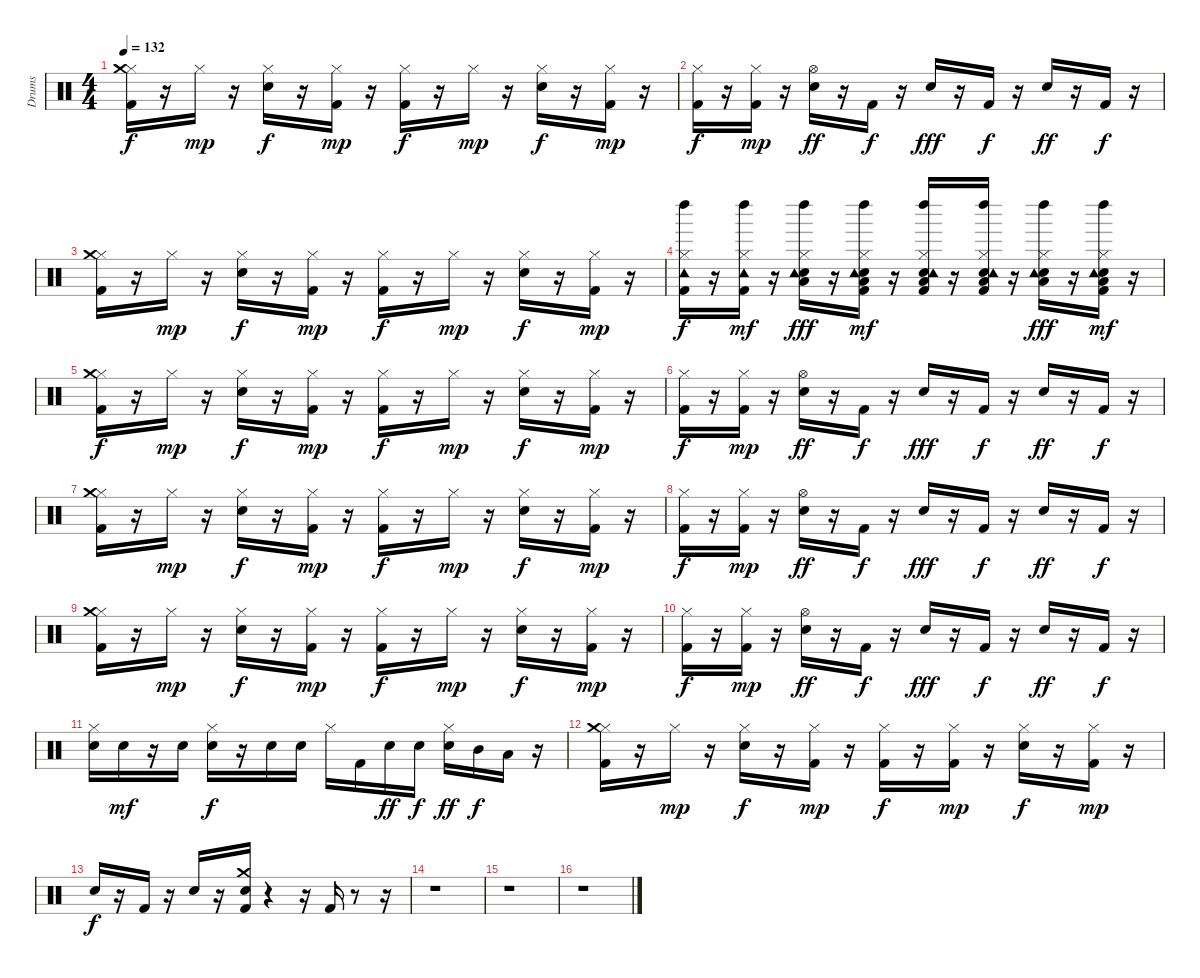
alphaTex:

\track ("Drums" "Drums") {instrument percussion}
\staff {score}
\articulation defaults
\ts (4 4)
\tempo 132
\clef neutral
\ks c
("Kick (hit) 2" "Hi-Hat (closed)" "Crash medium (hit)").16{dy f} r.16 "Hi-Hat (closed)".16{dy mp} r.16 ("Snare (hit) 2" "Hi-Hat (closed)").16{dy f} r.16 ("Kick (hit) 2" "Hi-Hat (closed)").16{dy mp} r.16 ("Kick (hit) 2" "Hi-Hat (closed)").16{dy f} r.16 "Hi-Hat (closed)".16{dy mp} r.16 ("Snare (hit) 2" "Hi-Hat (closed)").16{dy f} r.16 ("Kick (hit) 2" "Hi-Hat (closed)").16{dy mp} r.16 |
("Kick (hit) 2" "Hi-Hat (closed)").16{dy f} r.16 ("Kick (hit) 2" "Hi-Hat (closed)").16{dy mp} r.16 ("Snare (hit) 2" "Hi-Hat (open)").16{dy ff} r.16 "Kick (hit) 2".16{dy f} r.16 "Snare (hit) 2".16{dy fff} r.16 "Kick (hit) 2".16{dy f} r.16 "Snare (hit) 2".16{dy ff} r.16 "Kick (hit) 2".16{dy f} r.16 |
("Kick (hit) 2" "Hi-Hat (closed)" "Crash medium (hit)").16 r.16 "Hi-Hat (closed)".16{dy mp} r.16 ("Snare (hit) 2" "Hi-Hat (closed)").16{dy f} r.16 ("Kick (hit) 2" "Hi-Hat (closed)").16{dy mp} r.16 ("Kick (hit) 2" "Hi-Hat (closed)").16{dy f} r.16 "Hi-Hat (closed)".16{dy mp} r.16 ("Snare (hit) 2" "Hi-Hat (closed)").16{dy f} r.16 ("Kick (hit) 2" "Hi-Hat (closed)").16{dy mp} r.16 |
("Kick (hit) 2" "Hi-Hat (closed)" "Tambourine (hit)" "Left Maraca (hit)").16{dy f} r.16 ("Kick (hit) 2" "Hi-Hat (closed)" "Tambourine (hit)" "Left Maraca (hit)").16{dy mf} r.16 ("Snare (hit) 2" "Hi-Hat (closed)" "Low Floor Tom (hit)" "Tambourine (hit)" "Left Maraca (hit)").16{dy fff} r.16 ("Kick (hit) 2" "Snare (hit) 2" "Hi-Hat (closed)" "Low Floor Tom (hit)" "Tambourine (hit)" "Left Maraca (hit)").16{dy mf} r.16 ("Kick (hit) 2" "Snare (hit) 2" "Hi-Hat (closed)" "Low Floor Tom (hit)" "Tambourine (hit)" "Left Maraca (hit)").16 r.16 ("Kick (hit) 2" "Snare (hit) 2" "Hi-Hat (closed)" "Low Floor Tom (hit)" "Tambourine (hit)" "Left Maraca (hit)").16 r.16 ("Snare (hit) 2" "Hi-Hat (closed)" "Low Floor Tom (hit)" "Tambourine (hit)" "Left Maraca (hit)").16{dy fff} r.16 ("Kick (hit) 2" "Snare (hit) 2" "Hi-Hat (closed)" "Low Floor Tom (hit)" "Tambourine (hit)" "Left Maraca (hit)").16{dy mf} r.16 |
("Kick (hit) 2" "Hi-Hat (closed)" "Crash medium (hit)").16{dy f} r.16 "Hi-Hat (closed)".16{dy mp} r.16 ("Snare (hit) 2" "Hi-Hat (closed)").16{dy f} r.16 ("Kick (hit) 2" "Hi-Hat (closed)").16{dy mp} r.16 ("Kick (hit) 2" "Hi-Hat (closed)").16{dy f} r.16 "Hi-Hat (closed)".16{dy mp} r.16 ("Snare (hit) 2" "Hi-Hat (closed)").16{dy f} r.16 ("Kick (hit) 2" "Hi-Hat (closed)").16{dy mp} r.16 |
("Kick (hit) 2" "Hi-Hat (closed)").16{dy f} r.16 ("Kick (hit) 2" "Hi-Hat (closed)").16{dy mp} r.16 ("Snare (hit) 2" "Hi-Hat (open)").16{dy ff} r.16 "Kick (hit) 2".16{dy f} r.16 "Snare (hit) 2".16{dy fff} r.16 "Kick (hit) 2".16{dy f} r.16 "Snare (hit) 2".16{dy ff} r.16 "Kick (hit) 2".16{dy f} r.16 |
("Kick (hit) 2" "Hi-Hat (closed)" "Crash medium (hit)").16 r.16 "Hi-Hat (closed)".16{dy mp} r.16 ("Snare (hit) 2" "Hi-Hat (closed)").16{dy f} r.16 ("Kick (hit) 2" "Hi-Hat (closed)").16{dy mp} r.16 ("Kick (hit) 2" "Hi-Hat (closed)").16{dy f} r.16 "Hi-Hat (closed)".16{dy mp} r.16 ("Snare (hit) 2" "Hi-Hat (closed)").16{dy f} r.16 ("Kick (hit) 2" "Hi-Hat (closed)").16{dy mp} r.16 |
("Kick (hit) 2" "Hi-Hat (closed)").16{dy f} r.16 ("Kick (hit) 2" "Hi-Hat (closed)").16{dy mp} r.16 ("Snare (hit) 2" "Hi-Hat (open)").16{dy ff} r.16 "Kick (hit) 2".16{dy f} r.16 "Snare (hit) 2".16{dy fff} r.16 "Kick (hit) 2".16{dy f} r.16 "Snare (hit) 2".16{dy ff} r.16 "Kick (hit) 2".16{dy f} r.16 |
("Kick (hit) 2" "Hi-Hat (closed)" "Crash medium (hit)").16 r.16 "Hi-Hat (closed)".16{dy mp} r.16 ("Snare (hit) 2" "Hi-Hat (closed)").16{dy f} r.16 ("Kick (hit) 2" "Hi-Hat (closed)").16{dy mp} r.16 ("Kick (hit) 2" "Hi-Hat (closed)").16{dy f} r.16 "Hi-Hat (closed)".16{dy mp} r.16 ("Snare (hit) 2" "Hi-Hat (closed)").16{dy f} r.16 ("Kick (hit) 2" "Hi-Hat (closed)").16{dy mp} r.16 |
("Kick (hit) 2" "Hi-Hat (closed)").16{dy f} r.16 ("Kick (hit) 2" "Hi-Hat (closed)").16{dy mp} r.16 ("Snare (hit) 2" "Hi-Hat (open)").16{dy ff} r.16 "Kick (hit) 2".16{dy f} r.16 "Snare (hit) 2".16{dy fff} r.16 "Kick (hit) 2".16{dy f} r.16 "Snare (hit) 2".16{dy ff} r.16 "Kick (hit) 2".16{dy f} r.16 |
("Snare (hit) 2" "Hi-Hat (closed)").16 "Snare (hit) 2".16{dy mf} r.16 "Snare (hit) 2".16 ("Snare (hit) 2" "Hi-Hat (closed)").16{dy f} r.16 "Snare (hit) 2".16 "Snare (hit) 2".16 "Hi-Hat (closed)".16 "Kick (hit) 2".16 "Snare (hit) 2".16{dy ff} "Snare (hit) 2".16{dy f} ("Snare (hit) 2" "Hi-Hat (closed)").16{dy ff} "Mid Tom (hit)".16{dy f} "Low Floor Tom (hit)".16 r.16 |
("Kick (hit) 2" "Hi-Hat (closed)" "Crash medium (hit)").16 r.16 "Hi-Hat (closed)".16{dy mp} r.16 ("Snare (hit) 2" "Hi-Hat (closed)").16{dy f} r.16 ("Kick (hit) 2" "Hi-Hat (closed)").16{dy mp} r.16 ("Kick (hit) 2" "Hi-Hat (closed)").16{dy f} r.16 ("Kick (hit) 2" "Hi-Hat (closed)").16{dy mp} r.16 ("Snare (hit) 2" "Hi-Hat (closed)").16{dy f} r.16 ("Kick (hit) 2" "Hi-Hat (closed)").16{dy mp} r.16 |
"Snare (hit) 2".16{dy f} r.16 "Kick (hit) 2".16 r.16 "Snare (hit) 2".16 r.16 ("Kick (hit) 2" "Snare (hit) 2" "Crash medium (hit)").16 r.4 r.16 "Kick (hit) 2".16 r.8 r.16 |
r.1 |
r.1 |
r.1
